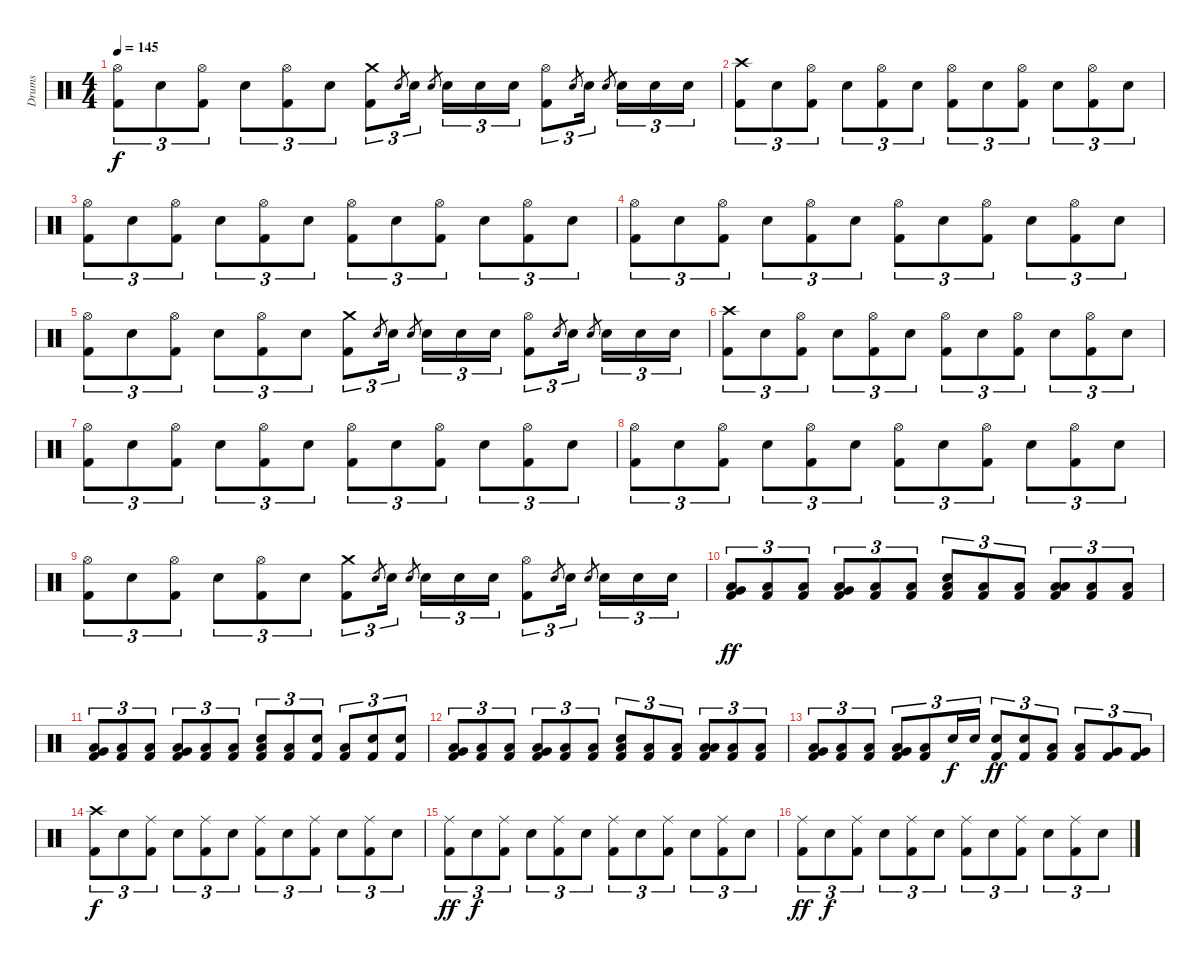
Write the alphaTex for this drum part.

\track ("Drums" "Drums") {instrument percussion}
\staff {score}
\articulation defaults
\ts (4 4)
\tempo 145
\clef neutral
\ks c
("Hi-Hat (open)" "Kick (hit) 2").8{tu (3 2) dy f} "Electric Snare (hit)".8{tu (3 2)} ("Hi-Hat (open)" "Kick (hit) 2").8{tu (3 2)} "Electric Snare (hit)".8{tu (3 2)} ("Hi-Hat (open)" "Kick (hit) 2").8{tu (3 2)} "Electric Snare (hit)".8{tu (3 2)} ("Crash medium (hit)" "Kick (hit) 2").8{tu (3 2)} "Electric Snare (hit)".8{gr} "Electric Snare (hit)".16{tu (3 2)} "Electric Snare (hit)".8{gr beam splitsecondary} "Electric Snare (hit)".16{tu (3 2)} "Electric Snare (hit)".16{tu (3 2)} "Electric Snare (hit)".16{tu (3 2)} ("Hi-Hat (open)" "Kick (hit) 2").8{tu (3 2)} "Electric Snare (hit)".8{gr} "Electric Snare (hit)".16{tu (3 2)} "Electric Snare (hit)".8{gr beam splitsecondary} "Electric Snare (hit)".16{tu (3 2)} "Electric Snare (hit)".16{tu (3 2)} "Electric Snare (hit)".16{tu (3 2)} |
("Crash high (hit)" "Kick (hit) 2").8{tu (3 2)} "Electric Snare (hit)".8{tu (3 2)} ("Hi-Hat (open)" "Kick (hit) 2").8{tu (3 2)} "Electric Snare (hit)".8{tu (3 2)} ("Hi-Hat (open)" "Kick (hit) 2").8{tu (3 2)} "Electric Snare (hit)".8{tu (3 2)} ("Hi-Hat (open)" "Kick (hit) 2").8{tu (3 2)} "Electric Snare (hit)".8{tu (3 2)} ("Hi-Hat (open)" "Kick (hit) 2").8{tu (3 2)} "Electric Snare (hit)".8{tu (3 2)} ("Hi-Hat (open)" "Kick (hit) 2").8{tu (3 2)} "Electric Snare (hit)".8{tu (3 2)} |
("Hi-Hat (open)" "Kick (hit) 2").8{tu (3 2)} "Electric Snare (hit)".8{tu (3 2)} ("Hi-Hat (open)" "Kick (hit) 2").8{tu (3 2)} "Electric Snare (hit)".8{tu (3 2)} ("Hi-Hat (open)" "Kick (hit) 2").8{tu (3 2)} "Electric Snare (hit)".8{tu (3 2)} ("Hi-Hat (open)" "Kick (hit) 2").8{tu (3 2)} "Electric Snare (hit)".8{tu (3 2)} ("Hi-Hat (open)" "Kick (hit) 2").8{tu (3 2)} "Electric Snare (hit)".8{tu (3 2)} ("Hi-Hat (open)" "Kick (hit) 2").8{tu (3 2)} "Electric Snare (hit)".8{tu (3 2)} |
("Hi-Hat (open)" "Kick (hit) 2").8{tu (3 2)} "Electric Snare (hit)".8{tu (3 2)} ("Hi-Hat (open)" "Kick (hit) 2").8{tu (3 2)} "Electric Snare (hit)".8{tu (3 2)} ("Hi-Hat (open)" "Kick (hit) 2").8{tu (3 2)} "Electric Snare (hit)".8{tu (3 2)} ("Hi-Hat (open)" "Kick (hit) 2").8{tu (3 2)} "Electric Snare (hit)".8{tu (3 2)} ("Hi-Hat (open)" "Kick (hit) 2").8{tu (3 2)} "Electric Snare (hit)".8{tu (3 2)} ("Hi-Hat (open)" "Kick (hit) 2").8{tu (3 2)} "Electric Snare (hit)".8{tu (3 2)} |
("Hi-Hat (open)" "Kick (hit) 2").8{tu (3 2)} "Electric Snare (hit)".8{tu (3 2)} ("Hi-Hat (open)" "Kick (hit) 2").8{tu (3 2)} "Electric Snare (hit)".8{tu (3 2)} ("Hi-Hat (open)" "Kick (hit) 2").8{tu (3 2)} "Electric Snare (hit)".8{tu (3 2)} ("Crash medium (hit)" "Kick (hit) 2").8{tu (3 2)} "Electric Snare (hit)".8{gr} "Electric Snare (hit)".16{tu (3 2)} "Electric Snare (hit)".8{gr beam splitsecondary} "Electric Snare (hit)".16{tu (3 2)} "Electric Snare (hit)".16{tu (3 2)} "Electric Snare (hit)".16{tu (3 2)} ("Hi-Hat (open)" "Kick (hit) 2").8{tu (3 2)} "Electric Snare (hit)".8{gr} "Electric Snare (hit)".16{tu (3 2)} "Electric Snare (hit)".8{gr beam splitsecondary} "Electric Snare (hit)".16{tu (3 2)} "Electric Snare (hit)".16{tu (3 2)} "Electric Snare (hit)".16{tu (3 2)} |
("Crash high (hit)" "Kick (hit) 2").8{tu (3 2)} "Electric Snare (hit)".8{tu (3 2)} ("Hi-Hat (open)" "Kick (hit) 2").8{tu (3 2)} "Electric Snare (hit)".8{tu (3 2)} ("Hi-Hat (open)" "Kick (hit) 2").8{tu (3 2)} "Electric Snare (hit)".8{tu (3 2)} ("Hi-Hat (open)" "Kick (hit) 2").8{tu (3 2)} "Electric Snare (hit)".8{tu (3 2)} ("Hi-Hat (open)" "Kick (hit) 2").8{tu (3 2)} "Electric Snare (hit)".8{tu (3 2)} ("Hi-Hat (open)" "Kick (hit) 2").8{tu (3 2)} "Electric Snare (hit)".8{tu (3 2)} |
("Hi-Hat (open)" "Kick (hit) 2").8{tu (3 2)} "Electric Snare (hit)".8{tu (3 2)} ("Hi-Hat (open)" "Kick (hit) 2").8{tu (3 2)} "Electric Snare (hit)".8{tu (3 2)} ("Hi-Hat (open)" "Kick (hit) 2").8{tu (3 2)} "Electric Snare (hit)".8{tu (3 2)} ("Hi-Hat (open)" "Kick (hit) 2").8{tu (3 2)} "Electric Snare (hit)".8{tu (3 2)} ("Hi-Hat (open)" "Kick (hit) 2").8{tu (3 2)} "Electric Snare (hit)".8{tu (3 2)} ("Hi-Hat (open)" "Kick (hit) 2").8{tu (3 2)} "Electric Snare (hit)".8{tu (3 2)} |
("Hi-Hat (open)" "Kick (hit) 2").8{tu (3 2)} "Electric Snare (hit)".8{tu (3 2)} ("Hi-Hat (open)" "Kick (hit) 2").8{tu (3 2)} "Electric Snare (hit)".8{tu (3 2)} ("Hi-Hat (open)" "Kick (hit) 2").8{tu (3 2)} "Electric Snare (hit)".8{tu (3 2)} ("Hi-Hat (open)" "Kick (hit) 2").8{tu (3 2)} "Electric Snare (hit)".8{tu (3 2)} ("Hi-Hat (open)" "Kick (hit) 2").8{tu (3 2)} "Electric Snare (hit)".8{tu (3 2)} ("Hi-Hat (open)" "Kick (hit) 2").8{tu (3 2)} "Electric Snare (hit)".8{tu (3 2)} |
("Hi-Hat (open)" "Kick (hit) 2").8{tu (3 2)} "Electric Snare (hit)".8{tu (3 2)} ("Hi-Hat (open)" "Kick (hit) 2").8{tu (3 2)} "Electric Snare (hit)".8{tu (3 2)} ("Hi-Hat (open)" "Kick (hit) 2").8{tu (3 2)} "Electric Snare (hit)".8{tu (3 2)} ("Crash medium (hit)" "Kick (hit) 2").8{tu (3 2)} "Electric Snare (hit)".8{gr} "Electric Snare (hit)".16{tu (3 2)} "Electric Snare (hit)".8{gr beam splitsecondary} "Electric Snare (hit)".16{tu (3 2)} "Electric Snare (hit)".16{tu (3 2)} "Electric Snare (hit)".16{tu (3 2)} ("Hi-Hat (open)" "Kick (hit) 2").8{tu (3 2)} "Electric Snare (hit)".8{gr} "Electric Snare (hit)".16{tu (3 2)} "Electric Snare (hit)".8{gr beam splitsecondary} "Electric Snare (hit)".16{tu (3 2)} "Electric Snare (hit)".16{tu (3 2)} "Electric Snare (hit)".16{tu (3 2)} |
("Low Tom (hit)" "Very Low Tom (hit)" "Kick (hit) 2").8{tu (3 2) dy ff} ("Low Floor Tom (hit)" "Kick (hit) 2").8{tu (3 2)} ("Low Floor Tom (hit)" "Kick (hit) 2").8{tu (3 2)} ("Low Floor Tom (hit)" "Very Low Tom (hit)" "Kick (hit) 2").8{tu (3 2)} ("Low Floor Tom (hit)" "Kick (hit) 2").8{tu (3 2)} ("Low Floor Tom (hit)" "Kick (hit) 2").8{tu (3 2)} ("Low Floor Tom (hit)" "Electric Snare (hit)" "Kick (hit) 2").8{tu (3 2)} ("Low Floor Tom (hit)" "Kick (hit) 2").8{tu (3 2)} ("Low Floor Tom (hit)" "Kick (hit) 2").8{tu (3 2)} ("Low Floor Tom (hit)" "Low Floor Tom (hit)" "Kick (hit) 2").8{tu (3 2)} ("Low Floor Tom (hit)" "Kick (hit) 2").8{tu (3 2)} ("Low Floor Tom (hit)" "Kick (hit) 2").8{tu (3 2)} |
("Low Tom (hit)" "Very Low Tom (hit)" "Kick (hit) 2").8{tu (3 2)} ("Low Floor Tom (hit)" "Kick (hit) 2").8{tu (3 2)} ("Low Floor Tom (hit)" "Kick (hit) 2").8{tu (3 2)} ("Low Floor Tom (hit)" "Very Low Tom (hit)" "Kick (hit) 2").8{tu (3 2)} ("Low Floor Tom (hit)" "Kick (hit) 2").8{tu (3 2)} ("Low Floor Tom (hit)" "Kick (hit) 2").8{tu (3 2)} ("Low Floor Tom (hit)" "Electric Snare (hit)" "Kick (hit) 2").8{tu (3 2)} ("Low Floor Tom (hit)" "Kick (hit) 2").8{tu (3 2)} ("Electric Snare (hit)" "Kick (hit) 2").8{tu (3 2)} ("Low Floor Tom (hit)" "Kick (hit) 2").8{tu (3 2)} ("Electric Snare (hit)" "Kick (hit) 2").8{tu (3 2)} ("Electric Snare (hit)" "Kick (hit) 2").8{tu (3 2)} |
("Low Tom (hit)" "Very Low Tom (hit)" "Kick (hit) 2").8{tu (3 2)} ("Low Floor Tom (hit)" "Kick (hit) 2").8{tu (3 2)} ("Low Floor Tom (hit)" "Kick (hit) 2").8{tu (3 2)} ("Low Floor Tom (hit)" "Very Low Tom (hit)" "Kick (hit) 2").8{tu (3 2)} ("Low Floor Tom (hit)" "Kick (hit) 2").8{tu (3 2)} ("Low Floor Tom (hit)" "Kick (hit) 2").8{tu (3 2)} ("Low Floor Tom (hit)" "Electric Snare (hit)" "Kick (hit) 2").8{tu (3 2)} ("Low Floor Tom (hit)" "Kick (hit) 2").8{tu (3 2)} ("Low Floor Tom (hit)" "Kick (hit) 2").8{tu (3 2)} ("Low Floor Tom (hit)" "Low Floor Tom (hit)" "Kick (hit) 2").8{tu (3 2)} ("Low Floor Tom (hit)" "Kick (hit) 2").8{tu (3 2)} ("Low Floor Tom (hit)" "Kick (hit) 2").8{tu (3 2)} |
("Low Tom (hit)" "Very Low Tom (hit)" "Kick (hit) 2").8{tu (3 2)} ("Low Floor Tom (hit)" "Kick (hit) 2").8{tu (3 2)} ("Low Floor Tom (hit)" "Kick (hit) 2").8{tu (3 2)} ("Low Floor Tom (hit)" "Very Low Tom (hit)" "Kick (hit) 2").8{tu (3 2)} ("Low Floor Tom (hit)" "Kick (hit) 2").8{tu (3 2)} "Electric Snare (hit)".16{tu (3 2) dy f} "Electric Snare (hit)".16{tu (3 2)} ("Electric Snare (hit)" "Kick (hit) 2").8{tu (3 2) dy ff} ("Electric Snare (hit)" "Kick (hit) 2").8{tu (3 2)} ("Low Tom (hit)" "Kick (hit) 2").8{tu (3 2)} ("Low Tom (hit)" "Kick (hit) 2").8{tu (3 2)} ("Very Low Tom (hit)" "Kick (hit) 2").8{tu (3 2)} ("Very Low Tom (hit)" "Kick (hit) 2").8{tu (3 2)} |
("Crash high (hit)" "Kick (hit) 2").8{tu (3 2) dy f} "Electric Snare (hit)".8{tu (3 2)} ("Ride (middle)" "Kick (hit) 2").8{tu (3 2)} "Electric Snare (hit)".8{tu (3 2)} ("Ride (middle)" "Kick (hit) 2").8{tu (3 2)} "Electric Snare (hit)".8{tu (3 2)} ("Ride (middle)" "Kick (hit) 2").8{tu (3 2)} "Electric Snare (hit)".8{tu (3 2)} ("Ride (middle)" "Kick (hit) 2").8{tu (3 2)} "Electric Snare (hit)".8{tu (3 2)} ("Ride (middle)" "Kick (hit) 2").8{tu (3 2)} "Electric Snare (hit)".8{tu (3 2)} |
("Ride (middle)" "Kick (hit) 2").8{tu (3 2) dy ff} "Electric Snare (hit)".8{tu (3 2) dy f} ("Ride (middle)" "Kick (hit) 2").8{tu (3 2)} "Electric Snare (hit)".8{tu (3 2)} ("Ride (middle)" "Kick (hit) 2").8{tu (3 2)} "Electric Snare (hit)".8{tu (3 2)} ("Ride (middle)" "Kick (hit) 2").8{tu (3 2)} "Electric Snare (hit)".8{tu (3 2)} ("Ride (middle)" "Kick (hit) 2").8{tu (3 2)} "Electric Snare (hit)".8{tu (3 2)} ("Ride (middle)" "Kick (hit) 2").8{tu (3 2)} "Electric Snare (hit)".8{tu (3 2)} |
("Ride (middle)" "Kick (hit) 2").8{tu (3 2) dy ff} "Electric Snare (hit)".8{tu (3 2) dy f} ("Ride (middle)" "Kick (hit) 2").8{tu (3 2)} "Electric Snare (hit)".8{tu (3 2)} ("Ride (middle)" "Kick (hit) 2").8{tu (3 2)} "Electric Snare (hit)".8{tu (3 2)} ("Ride (middle)" "Kick (hit) 2").8{tu (3 2)} "Electric Snare (hit)".8{tu (3 2)} ("Ride (middle)" "Kick (hit) 2").8{tu (3 2)} "Electric Snare (hit)".8{tu (3 2)} ("Ride (middle)" "Kick (hit) 2").8{tu (3 2)} "Electric Snare (hit)".8{tu (3 2)}
